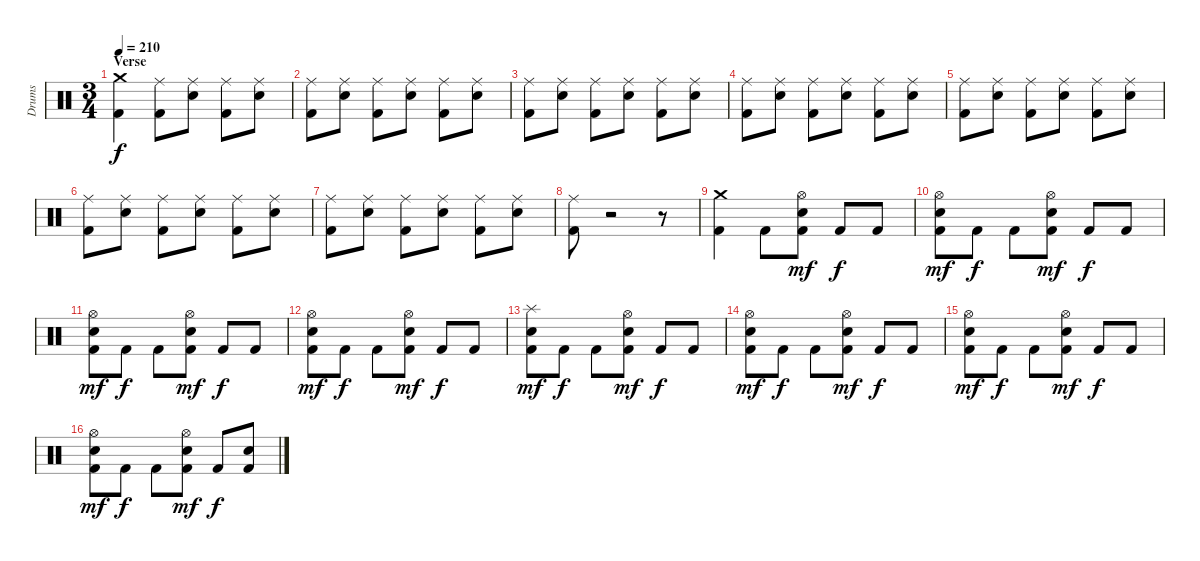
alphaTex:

\track ("Drums" "Drums") {instrument percussion}
\staff {score}
\articulation defaults
\ts (3 4)
\section ("" "Verse")
\tempo 210
\clef neutral
\ks c
("Crash medium (hit)" "Kick (hit) 2").4{dy f} ("Ride (middle)" "Kick (hit) 2").8 ("Ride (middle)" "Electric Snare (hit)").8 ("Ride (middle)" "Kick (hit) 2").8 ("Ride (middle)" "Electric Snare (hit)").8 |
("Ride (middle)" "Kick (hit) 2").8 ("Ride (middle)" "Electric Snare (hit)").8 ("Ride (middle)" "Kick (hit) 2").8 ("Ride (middle)" "Electric Snare (hit)").8 ("Ride (middle)" "Kick (hit) 2").8 ("Ride (middle)" "Electric Snare (hit)").8 |
("Ride (middle)" "Kick (hit) 2").8 ("Ride (middle)" "Electric Snare (hit)").8 ("Ride (middle)" "Kick (hit) 2").8 ("Ride (middle)" "Electric Snare (hit)").8 ("Ride (middle)" "Kick (hit) 2").8 ("Ride (middle)" "Electric Snare (hit)").8 |
("Ride (middle)" "Kick (hit) 2").8 ("Ride (middle)" "Electric Snare (hit)").8 ("Ride (middle)" "Kick (hit) 2").8 ("Ride (middle)" "Electric Snare (hit)").8 ("Ride (middle)" "Kick (hit) 2").8 ("Ride (middle)" "Electric Snare (hit)").8 |
("Ride (middle)" "Kick (hit) 2").8 ("Ride (middle)" "Electric Snare (hit)").8 ("Ride (middle)" "Kick (hit) 2").8 ("Ride (middle)" "Electric Snare (hit)").8 ("Ride (middle)" "Kick (hit) 2").8 ("Ride (middle)" "Electric Snare (hit)").8 |
("Ride (middle)" "Kick (hit) 2").8 ("Ride (middle)" "Electric Snare (hit)").8 ("Ride (middle)" "Kick (hit) 2").8 ("Ride (middle)" "Electric Snare (hit)").8 ("Ride (middle)" "Kick (hit) 2").8 ("Ride (middle)" "Electric Snare (hit)").8 |
("Ride (middle)" "Kick (hit) 2").8 ("Ride (middle)" "Electric Snare (hit)").8 ("Ride (middle)" "Kick (hit) 2").8 ("Ride (middle)" "Electric Snare (hit)").8 ("Ride (middle)" "Kick (hit) 2").8 ("Ride (middle)" "Electric Snare (hit)").8 |
("Ride (middle)" "Kick (hit) 2").8 r.2 r.8 |
("Crash medium (hit)" "Kick (hit) 2").4 "Kick (hit) 2".8 ("Hi-Hat (open)" "Electric Snare (hit)" "Kick (hit) 2").8{dy mf} "Kick (hit) 2".8{dy f} "Kick (hit) 2".8 |
("Hi-Hat (open)" "Electric Snare (hit)" "Kick (hit) 2").8{dy mf} "Kick (hit) 2".8{dy f} "Kick (hit) 2".8 ("Hi-Hat (open)" "Electric Snare (hit)" "Kick (hit) 2").8{dy mf} "Kick (hit) 2".8{dy f} "Kick (hit) 2".8 |
("Hi-Hat (open)" "Electric Snare (hit)" "Kick (hit) 2").8{dy mf} "Kick (hit) 2".8{dy f} "Kick (hit) 2".8 ("Hi-Hat (open)" "Electric Snare (hit)" "Kick (hit) 2").8{dy mf} "Kick (hit) 2".8{dy f} "Kick (hit) 2".8 |
("Hi-Hat (open)" "Electric Snare (hit)" "Kick (hit) 2").8{dy mf} "Kick (hit) 2".8{dy f} "Kick (hit) 2".8 ("Hi-Hat (open)" "Electric Snare (hit)" "Kick (hit) 2").8{dy mf} "Kick (hit) 2".8{dy f} "Kick (hit) 2".8 |
("Splash (hit)" "Electric Snare (hit)" "Kick (hit) 2").8{dy mf} "Kick (hit) 2".8{dy f} "Kick (hit) 2".8 ("Hi-Hat (open)" "Electric Snare (hit)" "Kick (hit) 2").8{dy mf} "Kick (hit) 2".8{dy f} "Kick (hit) 2".8 |
("Hi-Hat (open)" "Electric Snare (hit)" "Kick (hit) 2").8{dy mf} "Kick (hit) 2".8{dy f} "Kick (hit) 2".8 ("Hi-Hat (open)" "Electric Snare (hit)" "Kick (hit) 2").8{dy mf} "Kick (hit) 2".8{dy f} "Kick (hit) 2".8 |
("Hi-Hat (open)" "Electric Snare (hit)" "Kick (hit) 2").8{dy mf} "Kick (hit) 2".8{dy f} "Kick (hit) 2".8 ("Hi-Hat (open)" "Electric Snare (hit)" "Kick (hit) 2").8{dy mf} "Kick (hit) 2".8{dy f} "Kick (hit) 2".8 |
("Hi-Hat (open)" "Electric Snare (hit)" "Kick (hit) 2").8{dy mf} "Kick (hit) 2".8{dy f} "Kick (hit) 2".8 ("Hi-Hat (open)" "Electric Snare (hit)" "Kick (hit) 2").8{dy mf} "Kick (hit) 2".8{dy f} ("Electric Snare (hit)" "Kick (hit) 2").8
